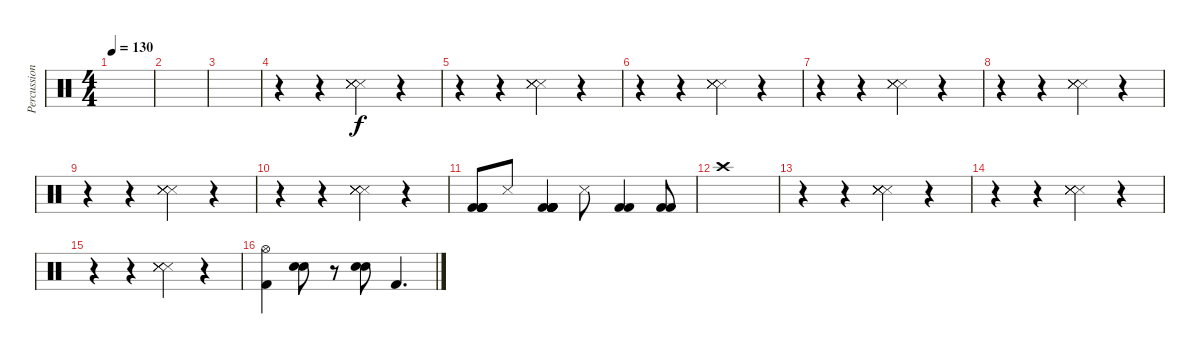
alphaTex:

\track ("Percussion 3" "Percussion") {instrument percussion}
\staff {score}
\articulation defaults
\ts (4 4)
\tempo 130
\clef neutral
\ks c
|
|
|
r.4 r.4 ("Snare (side stick) 3" "Snare (side stick) 3" "Snare (side stick) 3" "Snare (side stick) 3").4 r.4 |
r.4 r.4 ("Snare (side stick) 3" "Snare (side stick) 3" "Snare (side stick) 3" "Snare (side stick) 3").4 r.4 |
r.4 r.4 ("Snare (side stick) 3" "Snare (side stick) 3" "Snare (side stick) 3" "Snare (side stick) 3").4 r.4 |
r.4 r.4 ("Snare (side stick) 3" "Snare (side stick) 3" "Snare (side stick) 3" "Snare (side stick) 3").4 r.4 |
r.4 r.4 ("Snare (side stick) 3" "Snare (side stick) 3" "Snare (side stick) 3" "Snare (side stick) 3").4 r.4 |
r.4 r.4 ("Snare (side stick) 3" "Snare (side stick) 3" "Snare (side stick) 3" "Snare (side stick) 3").4 r.4 |
r.4 r.4 ("Snare (side stick) 3" "Snare (side stick) 3" "Snare (side stick) 3" "Snare (side stick) 3").4 r.4 |
("Kick (hit) 2" "Kick (hit) 2" "Kick (hit) 2" "Kick (hit) 2" "Kick (hit) 2" "Kick (hit) 2").8 "Snare (side stick) 3".8 ("Kick (hit) 2" "Kick (hit) 2" "Kick (hit) 2" "Kick (hit) 2" "Kick (hit) 2" "Kick (hit) 2").4 "Snare (side stick) 3".8 ("Kick (hit) 2" "Kick (hit) 2").4 ("Kick (hit) 2" "Kick (hit) 2").8 |
"Crash high (hit)".1 |
r.4 r.4 ("Snare (side stick) 3" "Snare (side stick) 3" "Snare (side stick) 3" "Snare (side stick) 3" "Snare (side stick) 3").4 r.4 |
r.4 r.4 ("Snare (side stick) 3" "Snare (side stick) 3" "Snare (side stick) 3" "Snare (side stick) 3").4 r.4 |
r.4 r.4 ("Snare (side stick) 3" "Snare (side stick) 3" "Snare (side stick) 3" "Snare (side stick) 3").4 r.4 |
("Hi-Hat (open)" "Kick (hit) 2").4 ("Electric Snare (hit)" "Snare (hit) 2").8 r.8 ("Electric Snare (hit)" "Snare (hit) 2").8 "Kick (hit) 2".4{d}
